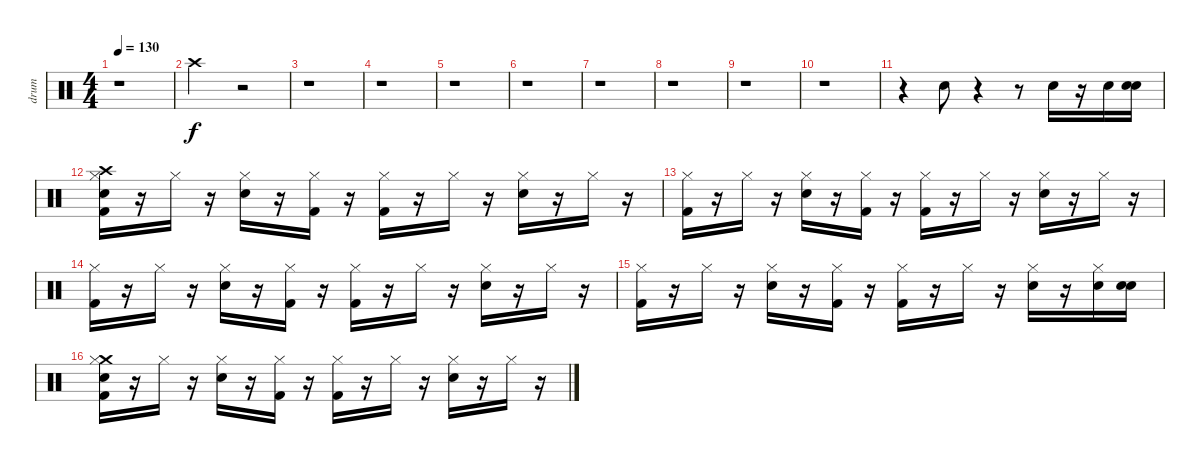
\track ("drum" "drum") {instrument percussion}
\staff {score}
\articulation defaults
\ts (4 4)
\tempo 130
\clef neutral
\ks c
r.1{dy f} |
"Crash high (hit)".2 r.2 |
r.1 |
r.1 |
r.1 |
r.1 |
r.1 |
r.1 |
r.1 |
r.1 |
r.4 "Snare (hit) 2".8 r.4 r.8 "Snare (hit) 2".16 r.16 "Snare (hit) 2".16 ("Snare (hit)" "Snare (hit) 2").16 |
("Snare (hit)" "Hi-Hat (closed)" "Kick (hit) 2" "Crash high (hit)").16 r.16 "Hi-Hat (closed)".16 r.16 ("Snare (hit) 2" "Hi-Hat (closed)").16 r.16 ("Kick (hit) 2" "Hi-Hat (closed)").16 r.16 ("Kick (hit) 2" "Hi-Hat (closed)").16 r.16 "Hi-Hat (closed)".16 r.16 ("Hi-Hat (closed)" "Snare (hit) 2").16 r.16 "Hi-Hat (closed)".16 r.16 |
("Hi-Hat (closed)" "Kick (hit) 2").16 r.16 "Hi-Hat (closed)".16 r.16 ("Snare (hit) 2" "Hi-Hat (closed)").16 r.16 ("Kick (hit) 2" "Hi-Hat (closed)").16 r.16 ("Hi-Hat (closed)" "Kick (hit) 2").16 r.16 "Hi-Hat (closed)".16 r.16 ("Hi-Hat (closed)" "Snare (hit) 2").16 r.16 "Hi-Hat (closed)".16 r.16 |
("Hi-Hat (closed)" "Kick (hit) 2").16 r.16 "Hi-Hat (closed)".16 r.16 ("Snare (hit) 2" "Hi-Hat (closed)").16 r.16 ("Kick (hit) 2" "Hi-Hat (closed)").16 r.16 ("Kick (hit) 2" "Hi-Hat (closed)").16 r.16 "Hi-Hat (closed)".16 r.16 ("Hi-Hat (closed)" "Snare (hit) 2").16 r.16 "Hi-Hat (closed)".16 r.16 |
("Hi-Hat (closed)" "Kick (hit) 2").16 r.16 "Hi-Hat (closed)".16 r.16 ("Hi-Hat (closed)" "Snare (hit) 2").16 r.16 ("Kick (hit) 2" "Hi-Hat (closed)").16 r.16 ("Hi-Hat (closed)" "Kick (hit) 2").16 r.16 "Hi-Hat (closed)".16 r.16 ("Hi-Hat (closed)" "Snare (hit) 2").16 r.16 ("Snare (hit) 2" "Hi-Hat (closed)").16 ("Snare (hit)" "Snare (hit) 2").16 |
("Snare (hit)" "Kick (hit) 2" "Crash medium (hit)" "Hi-Hat (closed)").16 r.16 "Hi-Hat (closed)".16 r.16 ("Snare (hit) 2" "Hi-Hat (closed)").16 r.16 ("Hi-Hat (closed)" "Kick (hit) 2").16 r.16 ("Kick (hit) 2" "Hi-Hat (closed)").16 r.16 "Hi-Hat (closed)".16 r.16 ("Hi-Hat (closed)" "Snare (hit) 2").16 r.16 "Hi-Hat (closed)".16 r.16
